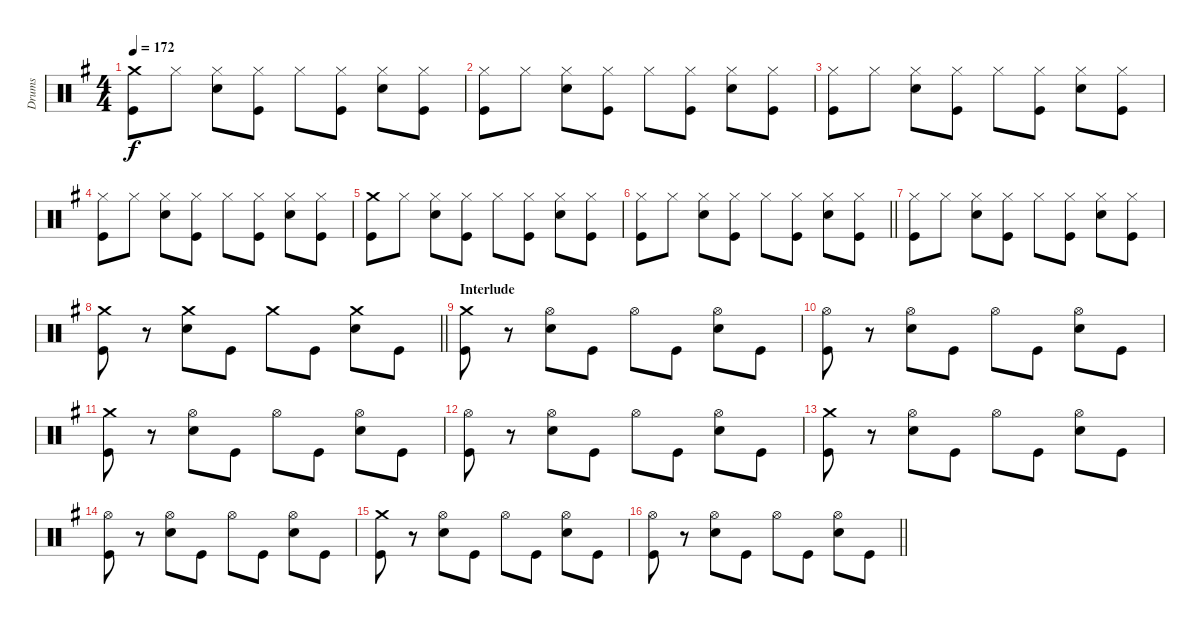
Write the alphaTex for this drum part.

\track ("Drums" "Drums") {instrument percussion}
\staff {score}
\articulation defaults
\ts (4 4)
\tempo 172
\clef neutral
\ks g
("Crash medium (hit)" "Kick (hit)").8{dy f} "Hi-Hat (closed)".8 ("Hi-Hat (closed)" "Snare (hit) 2").8 ("Hi-Hat (closed)" "Kick (hit)").8 "Hi-Hat (closed)".8 ("Hi-Hat (closed)" "Kick (hit)").8 ("Hi-Hat (closed)" "Snare (hit) 2").8 ("Hi-Hat (closed)" "Kick (hit)").8 |
("Hi-Hat (closed)" "Kick (hit)").8 "Hi-Hat (closed)".8 ("Hi-Hat (closed)" "Snare (hit) 2").8 ("Hi-Hat (closed)" "Kick (hit)").8 "Hi-Hat (closed)".8 ("Hi-Hat (closed)" "Kick (hit)").8 ("Hi-Hat (closed)" "Snare (hit) 2").8 ("Hi-Hat (closed)" "Kick (hit)").8 |
("Hi-Hat (closed)" "Kick (hit)").8 "Hi-Hat (closed)".8 ("Hi-Hat (closed)" "Snare (hit) 2").8 ("Hi-Hat (closed)" "Kick (hit)").8 "Hi-Hat (closed)".8 ("Hi-Hat (closed)" "Kick (hit)").8 ("Hi-Hat (closed)" "Snare (hit) 2").8 ("Hi-Hat (closed)" "Kick (hit)").8 |
("Hi-Hat (closed)" "Kick (hit)").8 "Hi-Hat (closed)".8 ("Hi-Hat (closed)" "Snare (hit) 2").8 ("Hi-Hat (closed)" "Kick (hit)").8 "Hi-Hat (closed)".8 ("Hi-Hat (closed)" "Kick (hit)").8 ("Hi-Hat (closed)" "Snare (hit) 2").8 ("Hi-Hat (closed)" "Kick (hit)").8 |
("Crash medium (hit)" "Kick (hit)").8 "Hi-Hat (closed)".8 ("Hi-Hat (closed)" "Snare (hit) 2").8 ("Hi-Hat (closed)" "Kick (hit)").8 "Hi-Hat (closed)".8 ("Hi-Hat (closed)" "Kick (hit)").8 ("Hi-Hat (closed)" "Snare (hit) 2").8 ("Hi-Hat (closed)" "Kick (hit)").8 |
\barLineRight lightlight
("Hi-Hat (closed)" "Kick (hit)").8 "Hi-Hat (closed)".8 ("Hi-Hat (closed)" "Snare (hit) 2").8 ("Hi-Hat (closed)" "Kick (hit)").8 "Hi-Hat (closed)".8 ("Hi-Hat (closed)" "Kick (hit)").8 ("Hi-Hat (closed)" "Snare (hit) 2").8 ("Hi-Hat (closed)" "Kick (hit)").8 |
("Hi-Hat (closed)" "Kick (hit)").8 "Hi-Hat (closed)".8 ("Hi-Hat (closed)" "Snare (hit) 2").8 ("Hi-Hat (closed)" "Kick (hit)").8 "Hi-Hat (closed)".8 ("Hi-Hat (closed)" "Kick (hit)").8 ("Hi-Hat (closed)" "Snare (hit) 2").8 ("Hi-Hat (closed)" "Kick (hit)").8 |
\barLineRight lightlight
("Crash medium (hit)" "Kick (hit)").8 r.8 ("Crash medium (hit)" "Snare (hit) 2").8 "Kick (hit)".8 "Crash medium (hit)".8 "Kick (hit)".8 ("Crash medium (hit)" "Snare (hit) 2").8 "Kick (hit)".8 |
\section ("" "Interlude")
("Crash medium (hit)" "Kick (hit)").8 r.8 ("Hi-Hat (open)" "Snare (hit) 2").8 "Kick (hit)".8 "Hi-Hat (open)".8 "Kick (hit)".8 ("Hi-Hat (open)" "Snare (hit) 2").8 "Kick (hit)".8 |
("Hi-Hat (open)" "Kick (hit)").8 r.8 ("Hi-Hat (open)" "Snare (hit) 2").8 "Kick (hit)".8 "Hi-Hat (open)".8 "Kick (hit)".8 ("Hi-Hat (open)" "Snare (hit) 2").8 "Kick (hit)".8 |
("Crash medium (hit)" "Kick (hit)").8 r.8 ("Hi-Hat (open)" "Snare (hit) 2").8 "Kick (hit)".8 "Hi-Hat (open)".8 "Kick (hit)".8 ("Hi-Hat (open)" "Snare (hit) 2").8 "Kick (hit)".8 |
("Hi-Hat (open)" "Kick (hit)").8 r.8 ("Hi-Hat (open)" "Snare (hit) 2").8 "Kick (hit)".8 "Hi-Hat (open)".8 "Kick (hit)".8 ("Hi-Hat (open)" "Snare (hit) 2").8 "Kick (hit)".8 |
("Crash medium (hit)" "Kick (hit)").8 r.8 ("Hi-Hat (open)" "Snare (hit) 2").8 "Kick (hit)".8 "Hi-Hat (open)".8 "Kick (hit)".8 ("Hi-Hat (open)" "Snare (hit) 2").8 "Kick (hit)".8 |
("Hi-Hat (open)" "Kick (hit)").8 r.8 ("Hi-Hat (open)" "Snare (hit) 2").8 "Kick (hit)".8 "Hi-Hat (open)".8 "Kick (hit)".8 ("Hi-Hat (open)" "Snare (hit) 2").8 "Kick (hit)".8 |
("Crash medium (hit)" "Kick (hit)").8 r.8 ("Hi-Hat (open)" "Snare (hit) 2").8 "Kick (hit)".8 "Hi-Hat (open)".8 "Kick (hit)".8 ("Hi-Hat (open)" "Snare (hit) 2").8 "Kick (hit)".8 |
\barLineRight lightlight
("Hi-Hat (open)" "Kick (hit)").8 r.8 ("Hi-Hat (open)" "Snare (hit) 2").8 "Kick (hit)".8 "Hi-Hat (open)".8 "Kick (hit)".8 ("Hi-Hat (open)" "Snare (hit) 2").8 "Kick (hit)".8
